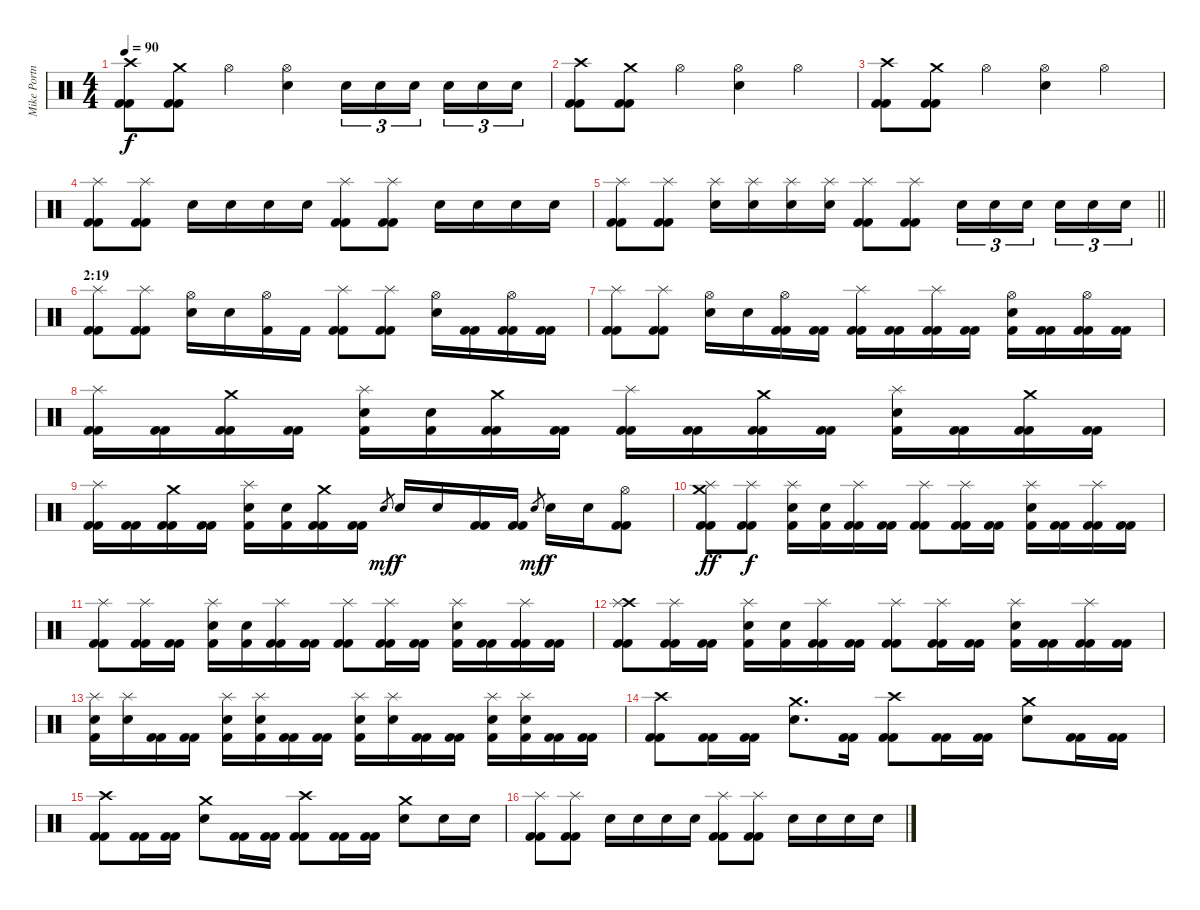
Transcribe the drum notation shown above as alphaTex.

\track ("Mike Portnoy (Drums)" "Mike Portn") {instrument percussion}
\staff {score}
\articulation defaults
\ts (4 4)
\tempo 90
\clef neutral
\ks c
("Crash high (hit)" "Kick (hit) 2" "Kick (hit) 2").8{dy f} ("Crash medium (hit)" "Kick (hit) 2" "Kick (hit) 2").8 "Hi-Hat (open)".4 ("Hi-Hat (open)" "Electric Snare (hit)").4 "Electric Snare (hit)".16{tu (3 2)} "Electric Snare (hit)".16{tu (3 2)} "Electric Snare (hit)".16{tu (3 2) beam splitsecondary} "Electric Snare (hit)".16{tu (3 2)} "Electric Snare (hit)".16{tu (3 2)} "Electric Snare (hit)".16{tu (3 2)} |
("Crash high (hit)" "Kick (hit) 2" "Kick (hit) 2").8 ("Crash medium (hit)" "Kick (hit) 2" "Kick (hit) 2").8 "Hi-Hat (open)".4 ("Hi-Hat (open)" "Electric Snare (hit)").4 "Hi-Hat (open)".4 |
("Crash high (hit)" "Kick (hit) 2" "Kick (hit) 2").8 ("Crash medium (hit)" "Kick (hit) 2" "Kick (hit) 2").8 "Hi-Hat (open)".4 ("Hi-Hat (open)" "Electric Snare (hit)").4 "Hi-Hat (open)".4 |
("Splash (hit)" "Kick (hit) 2" "Kick (hit) 2").8 ("Splash (hit)" "Kick (hit) 2" "Kick (hit) 2").8 "Electric Snare (hit)".16 "Electric Snare (hit)".16 "Electric Snare (hit)".16 "Electric Snare (hit)".16 ("Splash (hit)" "Kick (hit) 2" "Kick (hit) 2").8 ("Splash (hit)" "Kick (hit) 2" "Kick (hit) 2").8 "Electric Snare (hit)".16 "Electric Snare (hit)".16 "Electric Snare (hit)".16 "Electric Snare (hit)".16 |
\barLineRight lightlight
("Splash (hit)" "Kick (hit) 2" "Kick (hit) 2").8 ("Splash (hit)" "Kick (hit) 2" "Kick (hit) 2").8 ("Splash (hit)" "Electric Snare (hit)").16 ("Splash (hit)" "Electric Snare (hit)").16 ("Splash (hit)" "Electric Snare (hit)").16 ("Splash (hit)" "Electric Snare (hit)").16 ("Splash (hit)" "Kick (hit) 2" "Kick (hit) 2").8 ("Splash (hit)" "Kick (hit) 2" "Kick (hit) 2").8 "Electric Snare (hit)".16{tu (3 2)} "Electric Snare (hit)".16{tu (3 2)} "Electric Snare (hit)".16{tu (3 2) beam splitsecondary} "Electric Snare (hit)".16{tu (3 2)} "Electric Snare (hit)".16{tu (3 2)} "Electric Snare (hit)".16{tu (3 2)} |
\section ("" "2:19")
("Splash (hit)" "Kick (hit) 2" "Kick (hit) 2").8 ("Splash (hit)" "Kick (hit) 2" "Kick (hit) 2").8 ("Hi-Hat (open)" "Electric Snare (hit)").16 "Electric Snare (hit)".16 ("Hi-Hat (open)" "Kick (hit) 2").16 "Kick (hit) 2".16 ("Splash (hit)" "Kick (hit) 2" "Kick (hit) 2").8 ("Splash (hit)" "Kick (hit) 2" "Kick (hit) 2").8 ("Hi-Hat (open)" "Electric Snare (hit)").16 ("Kick (hit) 2" "Kick (hit) 2").16 ("Hi-Hat (open)" "Kick (hit) 2" "Kick (hit) 2").16 ("Kick (hit) 2" "Kick (hit) 2").16 |
("Splash (hit)" "Kick (hit) 2" "Kick (hit) 2").8 ("Splash (hit)" "Kick (hit) 2" "Kick (hit) 2").8 ("Hi-Hat (open)" "Electric Snare (hit)").16 "Electric Snare (hit)".16 ("Hi-Hat (open)" "Kick (hit) 2" "Kick (hit) 2").16 ("Kick (hit) 2" "Kick (hit) 2").16 ("Splash (hit)" "Kick (hit) 2" "Kick (hit) 2").16 ("Kick (hit) 2" "Kick (hit) 2").16 ("Splash (hit)" "Kick (hit) 2" "Kick (hit) 2").16 ("Kick (hit) 2" "Kick (hit) 2").16 ("Hi-Hat (open)" "Electric Snare (hit)" "Kick (hit) 2").16 ("Kick (hit) 2" "Kick (hit) 2").16 ("Hi-Hat (open)" "Kick (hit) 2" "Kick (hit) 2").16 ("Kick (hit) 2" "Kick (hit) 2").16 |
("Splash (hit)" "Kick (hit) 2" "Kick (hit) 2").16 ("Kick (hit) 2" "Kick (hit) 2").16 ("Crash medium (hit)" "Kick (hit) 2" "Kick (hit) 2").16 ("Kick (hit) 2" "Kick (hit) 2").16 ("Splash (hit)" "Electric Snare (hit)" "Kick (hit) 2").16 ("Electric Snare (hit)" "Kick (hit) 2").16 ("Crash medium (hit)" "Kick (hit) 2" "Kick (hit) 2").16 ("Kick (hit) 2" "Kick (hit) 2").16 ("Splash (hit)" "Kick (hit) 2" "Kick (hit) 2").16 ("Kick (hit) 2" "Kick (hit) 2").16 ("Crash medium (hit)" "Kick (hit) 2" "Kick (hit) 2").16 ("Kick (hit) 2" "Kick (hit) 2").16 ("Splash (hit)" "Electric Snare (hit)" "Kick (hit) 2").16 ("Kick (hit) 2" "Kick (hit) 2").16 ("Crash medium (hit)" "Kick (hit) 2" "Kick (hit) 2").16 ("Kick (hit) 2" "Kick (hit) 2").16 |
("Splash (hit)" "Kick (hit) 2" "Kick (hit) 2").16 ("Kick (hit) 2" "Kick (hit) 2").16 ("Crash medium (hit)" "Kick (hit) 2" "Kick (hit) 2").16 ("Kick (hit) 2" "Kick (hit) 2").16 ("Splash (hit)" "Electric Snare (hit)" "Kick (hit) 2").16 ("Electric Snare (hit)" "Kick (hit) 2").16 ("Crash medium (hit)" "Kick (hit) 2" "Kick (hit) 2").16 ("Kick (hit) 2" "Kick (hit) 2").16 "Electric Snare (hit)".8{gr dy mf} "Electric Snare (hit)".16{dy f} "Electric Snare (hit)".16 ("Kick (hit) 2" "Kick (hit) 2").16 ("Kick (hit) 2" "Kick (hit) 2").16 "Electric Snare (hit)".8{gr dy mf} "Electric Snare (hit)".16{dy f} "Electric Snare (hit)".16 ("Hi-Hat (open)" "Kick (hit) 2" "Kick (hit) 2").8 |
("Crash medium (hit)" "Splash (hit)" "Kick (hit) 2" "Kick (hit) 2").8{dy ff} ("Splash (hit)" "Kick (hit) 2" "Kick (hit) 2").8{dy f} ("Splash (hit)" "Electric Snare (hit)" "Kick (hit) 2").16 ("Electric Snare (hit)" "Kick (hit) 2").16 ("Splash (hit)" "Kick (hit) 2" "Kick (hit) 2").16 ("Kick (hit) 2" "Kick (hit) 2").16 ("Splash (hit)" "Kick (hit) 2" "Kick (hit) 2").8 ("Splash (hit)" "Kick (hit) 2" "Kick (hit) 2").16 ("Kick (hit) 2" "Kick (hit) 2").16 ("Splash (hit)" "Electric Snare (hit)" "Kick (hit) 2").16 ("Kick (hit) 2" "Kick (hit) 2").16 ("Splash (hit)" "Kick (hit) 2" "Kick (hit) 2").16 ("Kick (hit) 2" "Kick (hit) 2").16 |
("Splash (hit)" "Kick (hit) 2" "Kick (hit) 2").8 ("Splash (hit)" "Kick (hit) 2" "Kick (hit) 2").16 ("Kick (hit) 2" "Kick (hit) 2").16 ("Splash (hit)" "Electric Snare (hit)" "Kick (hit) 2").16 ("Electric Snare (hit)" "Kick (hit) 2").16 ("Splash (hit)" "Kick (hit) 2" "Kick (hit) 2").16 ("Kick (hit) 2" "Kick (hit) 2").16 ("Splash (hit)" "Kick (hit) 2" "Kick (hit) 2").8 ("Splash (hit)" "Kick (hit) 2" "Kick (hit) 2").16 ("Kick (hit) 2" "Kick (hit) 2").16 ("Splash (hit)" "Electric Snare (hit)" "Kick (hit) 2").16 ("Kick (hit) 2" "Kick (hit) 2").16 ("Splash (hit)" "Kick (hit) 2" "Kick (hit) 2").16 ("Kick (hit) 2" "Kick (hit) 2").16 |
("Crash high (hit)" "Splash (hit)" "Kick (hit) 2" "Kick (hit) 2").8 ("Splash (hit)" "Kick (hit) 2" "Kick (hit) 2").16 ("Kick (hit) 2" "Kick (hit) 2").16 ("Splash (hit)" "Electric Snare (hit)" "Kick (hit) 2").16 ("Electric Snare (hit)" "Kick (hit) 2").16 ("Splash (hit)" "Kick (hit) 2" "Kick (hit) 2").16 ("Kick (hit) 2" "Kick (hit) 2").16 ("Splash (hit)" "Kick (hit) 2" "Kick (hit) 2").8 ("Splash (hit)" "Kick (hit) 2" "Kick (hit) 2").16 ("Kick (hit) 2" "Kick (hit) 2").16 ("Splash (hit)" "Electric Snare (hit)" "Kick (hit) 2").16 ("Kick (hit) 2" "Kick (hit) 2").16 ("Splash (hit)" "Kick (hit) 2" "Kick (hit) 2").16 ("Kick (hit) 2" "Kick (hit) 2").16 |
("Splash (hit)" "Electric Snare (hit)" "Kick (hit) 2").16 ("Splash (hit)" "Electric Snare (hit)").16 ("Kick (hit) 2" "Kick (hit) 2").16 ("Kick (hit) 2" "Kick (hit) 2").16 ("Splash (hit)" "Electric Snare (hit)" "Kick (hit) 2").16 ("Splash (hit)" "Electric Snare (hit)" "Kick (hit) 2").16 ("Kick (hit) 2" "Kick (hit) 2").16 ("Kick (hit) 2" "Kick (hit) 2").16 ("Splash (hit)" "Electric Snare (hit)" "Kick (hit) 2").16 ("Splash (hit)" "Electric Snare (hit)").16 ("Kick (hit) 2" "Kick (hit) 2").16 ("Kick (hit) 2" "Kick (hit) 2").16 ("Splash (hit)" "Electric Snare (hit)" "Kick (hit) 2").16 ("Splash (hit)" "Electric Snare (hit)" "Kick (hit) 2").16 ("Kick (hit) 2" "Kick (hit) 2").16 ("Kick (hit) 2" "Kick (hit) 2").16 |
("Crash high (hit)" "Kick (hit) 2" "Kick (hit) 2").8 ("Kick (hit) 2" "Kick (hit) 2").16 ("Kick (hit) 2" "Kick (hit) 2").16 ("Crash medium (hit)" "Electric Snare (hit)").8{d} ("Kick (hit) 2" "Kick (hit) 2").16 ("Crash high (hit)" "Kick (hit) 2" "Kick (hit) 2").8 ("Kick (hit) 2" "Kick (hit) 2").16 ("Kick (hit) 2" "Kick (hit) 2").16 ("Crash medium (hit)" "Electric Snare (hit)").8 ("Kick (hit) 2" "Kick (hit) 2").16 ("Kick (hit) 2" "Kick (hit) 2").16 |
("Crash high (hit)" "Kick (hit) 2" "Kick (hit) 2").8 ("Kick (hit) 2" "Kick (hit) 2").16 ("Kick (hit) 2" "Kick (hit) 2").16 ("Crash medium (hit)" "Electric Snare (hit)").8 ("Kick (hit) 2" "Kick (hit) 2").16 ("Kick (hit) 2" "Kick (hit) 2").16 ("Crash high (hit)" "Kick (hit) 2" "Kick (hit) 2").8 ("Kick (hit) 2" "Kick (hit) 2").16 ("Kick (hit) 2" "Kick (hit) 2").16 ("Crash medium (hit)" "Electric Snare (hit)").8 "Electric Snare (hit)".16 "Electric Snare (hit)".16 |
("Splash (hit)" "Kick (hit) 2" "Kick (hit) 2").8 ("Splash (hit)" "Kick (hit) 2" "Kick (hit) 2").8 "Electric Snare (hit)".16 "Electric Snare (hit)".16 "Electric Snare (hit)".16 "Electric Snare (hit)".16 ("Splash (hit)" "Kick (hit) 2" "Kick (hit) 2").8 ("Splash (hit)" "Kick (hit) 2" "Kick (hit) 2").8 "Electric Snare (hit)".16 "Electric Snare (hit)".16 "Electric Snare (hit)".16 "Electric Snare (hit)".16
